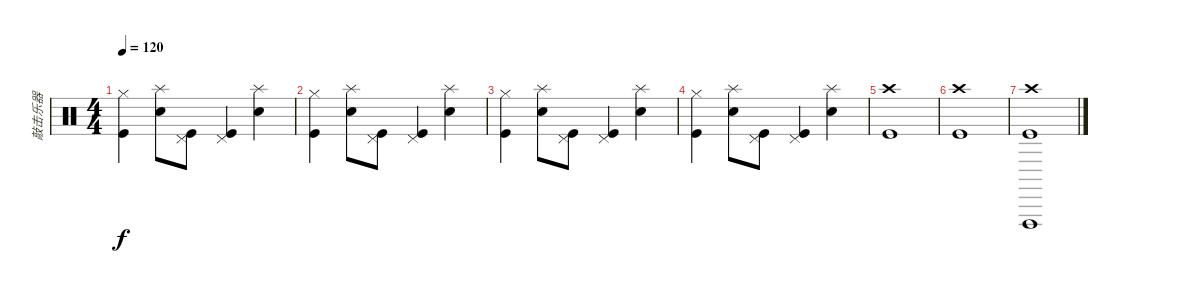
\track ("敲击乐器" "敲击乐器") {instrument percussion}
\staff {score}
\articulation defaults
\ts (4 4)
\tempo 120
\clef neutral
\ks c
("Hi-Hat (closed)" "Kick (hit)").4{dy f} ("Splash (hit)" "Snare (hit) 2").8 ("Pedal Hi-Hat (hit)" "Kick (hit)").8 ("Pedal Hi-Hat (hit)" "Kick (hit)").4 ("Splash (hit)" "Snare (hit) 2").4 |
("Hi-Hat (closed)" "Kick (hit)").4 ("Splash (hit)" "Snare (hit) 2").8 ("Pedal Hi-Hat (hit)" "Kick (hit)").8 ("Pedal Hi-Hat (hit)" "Kick (hit)").4 ("Splash (hit)" "Snare (hit) 2").4 |
("Hi-Hat (closed)" "Kick (hit)").4 ("Splash (hit)" "Snare (hit) 2").8 ("Pedal Hi-Hat (hit)" "Kick (hit)").8 ("Pedal Hi-Hat (hit)" "Kick (hit)").4 ("Splash (hit)" "Snare (hit) 2").4 |
("Hi-Hat (closed)" "Kick (hit)").4 ("Splash (hit)" "Snare (hit) 2").8 ("Pedal Hi-Hat (hit)" "Kick (hit)").8 ("Pedal Hi-Hat (hit)" "Kick (hit)").4 ("Splash (hit)" "Snare (hit) 2").4 |
("Crash high (hit)" "Kick (hit)").1 |
("Crash high (hit)" "Kick (hit)").1 |
("Crash high (hit)" "Vibraslap (hit)" "Kick (hit)").1
